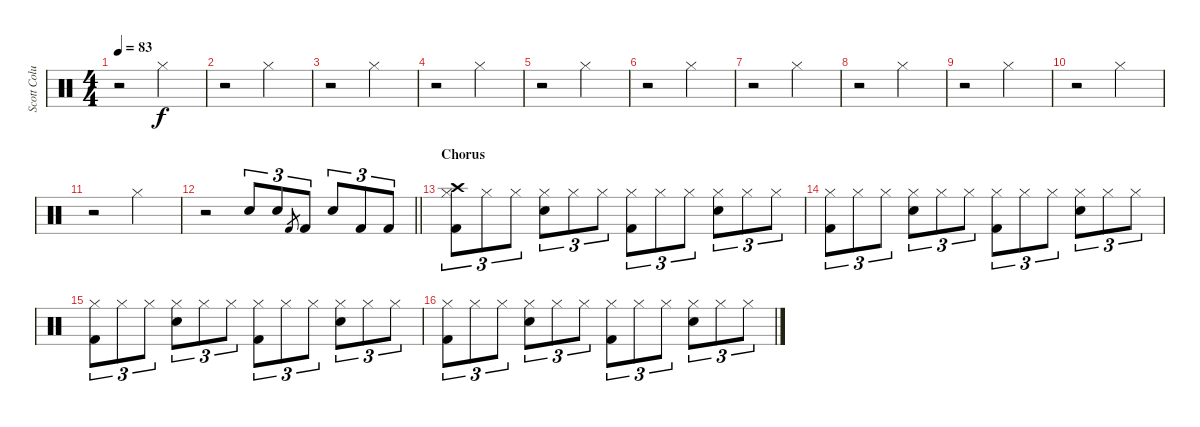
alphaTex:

\track ("Scott Columbus" "Scott Colu") {instrument percussion}
\staff {score}
\articulation defaults
\ts (4 4)
\tempo 83
\clef neutral
\ks c
r.2{dy f} "Hi-Hat (closed)".2 |
r.2 "Hi-Hat (closed)".2 |
r.2 "Hi-Hat (closed)".2 |
r.2 "Hi-Hat (closed)".2 |
r.2 "Hi-Hat (closed)".2 |
r.2 "Hi-Hat (closed)".2 |
r.2 "Hi-Hat (closed)".2 |
r.2 "Hi-Hat (closed)".2 |
r.2 "Hi-Hat (closed)".2 |
r.2 "Hi-Hat (closed)".2 |
r.2 "Hi-Hat (closed)".2 |
\barLineRight lightlight
r.2 "Electric Snare (hit)".8{tu (3 2)} "Electric Snare (hit)".8{tu (3 2)} "Kick (hit) 2".8{gr} "Kick (hit) 2".8{tu (3 2)} "Electric Snare (hit)".8{tu (3 2)} "Kick (hit) 2".8{tu (3 2)} "Kick (hit) 2".8{tu (3 2)} |
\section ("" "Chorus")
("Kick (hit) 2" "Hi-Hat (closed)" "Crash high (hit)").8{tu (3 2)} "Hi-Hat (closed)".8{tu (3 2)} "Hi-Hat (closed)".8{tu (3 2)} ("Electric Snare (hit)" "Hi-Hat (closed)").8{tu (3 2)} "Hi-Hat (closed)".8{tu (3 2)} "Hi-Hat (closed)".8{tu (3 2)} ("Kick (hit) 2" "Hi-Hat (closed)").8{tu (3 2)} "Hi-Hat (closed)".8{tu (3 2)} "Hi-Hat (closed)".8{tu (3 2)} ("Electric Snare (hit)" "Hi-Hat (closed)").8{tu (3 2)} "Hi-Hat (closed)".8{tu (3 2)} "Hi-Hat (closed)".8{tu (3 2)} |
("Kick (hit) 2" "Hi-Hat (closed)").8{tu (3 2)} "Hi-Hat (closed)".8{tu (3 2)} "Hi-Hat (closed)".8{tu (3 2)} ("Electric Snare (hit)" "Hi-Hat (closed)").8{tu (3 2)} "Hi-Hat (closed)".8{tu (3 2)} "Hi-Hat (closed)".8{tu (3 2)} ("Kick (hit) 2" "Hi-Hat (closed)").8{tu (3 2)} "Hi-Hat (closed)".8{tu (3 2)} "Hi-Hat (closed)".8{tu (3 2)} ("Electric Snare (hit)" "Hi-Hat (closed)").8{tu (3 2)} "Hi-Hat (closed)".8{tu (3 2)} "Hi-Hat (closed)".8{tu (3 2)} |
("Kick (hit) 2" "Hi-Hat (closed)").8{tu (3 2)} "Hi-Hat (closed)".8{tu (3 2)} "Hi-Hat (closed)".8{tu (3 2)} ("Electric Snare (hit)" "Hi-Hat (closed)").8{tu (3 2)} "Hi-Hat (closed)".8{tu (3 2)} "Hi-Hat (closed)".8{tu (3 2)} ("Kick (hit) 2" "Hi-Hat (closed)").8{tu (3 2)} "Hi-Hat (closed)".8{tu (3 2)} "Hi-Hat (closed)".8{tu (3 2)} ("Electric Snare (hit)" "Hi-Hat (closed)").8{tu (3 2)} "Hi-Hat (closed)".8{tu (3 2)} "Hi-Hat (closed)".8{tu (3 2)} |
("Kick (hit) 2" "Hi-Hat (closed)").8{tu (3 2)} "Hi-Hat (closed)".8{tu (3 2)} "Hi-Hat (closed)".8{tu (3 2)} ("Electric Snare (hit)" "Hi-Hat (closed)").8{tu (3 2)} "Hi-Hat (closed)".8{tu (3 2)} "Hi-Hat (closed)".8{tu (3 2)} ("Kick (hit) 2" "Hi-Hat (closed)").8{tu (3 2)} "Hi-Hat (closed)".8{tu (3 2)} "Hi-Hat (closed)".8{tu (3 2)} ("Electric Snare (hit)" "Hi-Hat (closed)").8{tu (3 2)} "Hi-Hat (closed)".8{tu (3 2)} "Hi-Hat (closed)".8{tu (3 2)}
